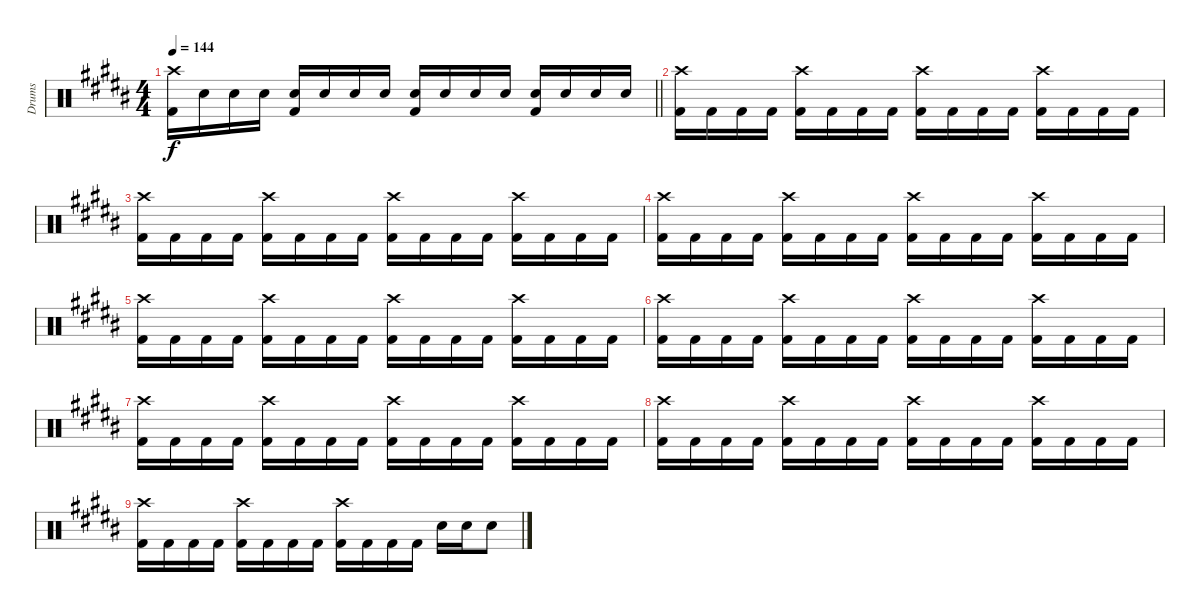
\track ("Drums" "Drums") {instrument percussion}
\staff {score}
\articulation defaults
\ts (4 4)
\tempo 144
\clef neutral
\barLineRight lightlight
\ks g#minor
("Crash high (hit)" "Kick (hit) 2").16{dy f} "Snare (hit) 2".16 "Snare (hit) 2".16 "Snare (hit) 2".16 ("Snare (hit) 2" "Kick (hit) 2").16 "Snare (hit) 2".16 "Snare (hit) 2".16 "Snare (hit) 2".16 ("Snare (hit) 2" "Kick (hit) 2").16 "Snare (hit) 2".16 "Snare (hit) 2".16 "Snare (hit) 2".16 ("Snare (hit) 2" "Kick (hit) 2").16 "Snare (hit) 2".16 "Snare (hit) 2".16 "Snare (hit) 2".16 |
("Crash high (hit)" "Kick (hit) 2").16 "Kick (hit) 2".16 "Kick (hit) 2".16 "Kick (hit) 2".16 ("Crash high (hit)" "Kick (hit) 2").16 "Kick (hit) 2".16 "Kick (hit) 2".16 "Kick (hit) 2".16 ("Crash high (hit)" "Kick (hit) 2").16 "Kick (hit) 2".16 "Kick (hit) 2".16 "Kick (hit) 2".16 ("Crash high (hit)" "Kick (hit) 2").16 "Kick (hit) 2".16 "Kick (hit) 2".16 "Kick (hit) 2".16 |
("Crash high (hit)" "Kick (hit) 2").16 "Kick (hit) 2".16 "Kick (hit) 2".16 "Kick (hit) 2".16 ("Crash high (hit)" "Kick (hit) 2").16 "Kick (hit) 2".16 "Kick (hit) 2".16 "Kick (hit) 2".16 ("Crash high (hit)" "Kick (hit) 2").16 "Kick (hit) 2".16 "Kick (hit) 2".16 "Kick (hit) 2".16 ("Crash high (hit)" "Kick (hit) 2").16 "Kick (hit) 2".16 "Kick (hit) 2".16 "Kick (hit) 2".16 |
("Crash high (hit)" "Kick (hit) 2").16 "Kick (hit) 2".16 "Kick (hit) 2".16 "Kick (hit) 2".16 ("Crash high (hit)" "Kick (hit) 2").16 "Kick (hit) 2".16 "Kick (hit) 2".16 "Kick (hit) 2".16 ("Crash high (hit)" "Kick (hit) 2").16 "Kick (hit) 2".16 "Kick (hit) 2".16 "Kick (hit) 2".16 ("Crash high (hit)" "Kick (hit) 2").16 "Kick (hit) 2".16 "Kick (hit) 2".16 "Kick (hit) 2".16 |
("Crash high (hit)" "Kick (hit) 2").16 "Kick (hit) 2".16 "Kick (hit) 2".16 "Kick (hit) 2".16 ("Crash high (hit)" "Kick (hit) 2").16 "Kick (hit) 2".16 "Kick (hit) 2".16 "Kick (hit) 2".16 ("Crash high (hit)" "Kick (hit) 2").16 "Kick (hit) 2".16 "Kick (hit) 2".16 "Kick (hit) 2".16 ("Crash high (hit)" "Kick (hit) 2").16 "Kick (hit) 2".16 "Kick (hit) 2".16 "Kick (hit) 2".16 |
("Crash high (hit)" "Kick (hit) 2").16 "Kick (hit) 2".16 "Kick (hit) 2".16 "Kick (hit) 2".16 ("Crash high (hit)" "Kick (hit) 2").16 "Kick (hit) 2".16 "Kick (hit) 2".16 "Kick (hit) 2".16 ("Crash high (hit)" "Kick (hit) 2").16 "Kick (hit) 2".16 "Kick (hit) 2".16 "Kick (hit) 2".16 ("Crash high (hit)" "Kick (hit) 2").16 "Kick (hit) 2".16 "Kick (hit) 2".16 "Kick (hit) 2".16 |
("Crash high (hit)" "Kick (hit) 2").16 "Kick (hit) 2".16 "Kick (hit) 2".16 "Kick (hit) 2".16 ("Crash high (hit)" "Kick (hit) 2").16 "Kick (hit) 2".16 "Kick (hit) 2".16 "Kick (hit) 2".16 ("Crash high (hit)" "Kick (hit) 2").16 "Kick (hit) 2".16 "Kick (hit) 2".16 "Kick (hit) 2".16 ("Crash high (hit)" "Kick (hit) 2").16 "Kick (hit) 2".16 "Kick (hit) 2".16 "Kick (hit) 2".16 |
("Crash high (hit)" "Kick (hit) 2").16 "Kick (hit) 2".16 "Kick (hit) 2".16 "Kick (hit) 2".16 ("Crash high (hit)" "Kick (hit) 2").16 "Kick (hit) 2".16 "Kick (hit) 2".16 "Kick (hit) 2".16 ("Crash high (hit)" "Kick (hit) 2").16 "Kick (hit) 2".16 "Kick (hit) 2".16 "Kick (hit) 2".16 ("Crash high (hit)" "Kick (hit) 2").16 "Kick (hit) 2".16 "Kick (hit) 2".16 "Kick (hit) 2".16 |
("Crash high (hit)" "Kick (hit) 2").16 "Kick (hit) 2".16 "Kick (hit) 2".16 "Kick (hit) 2".16 ("Crash high (hit)" "Kick (hit) 2").16 "Kick (hit) 2".16 "Kick (hit) 2".16 "Kick (hit) 2".16 ("Crash high (hit)" "Kick (hit) 2").16 "Kick (hit) 2".16 "Kick (hit) 2".16 "Kick (hit) 2".16 "Snare (hit) 2".16 "Snare (hit) 2".16 "Snare (hit) 2".8
